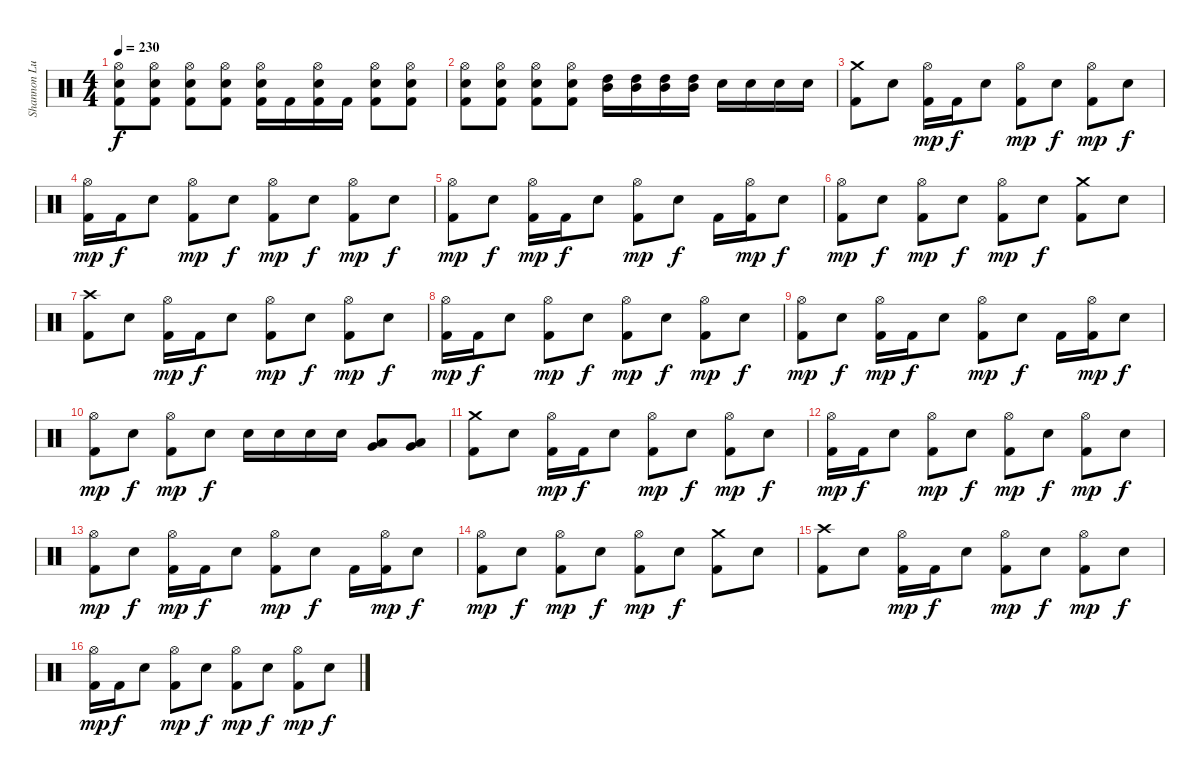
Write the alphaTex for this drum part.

\track ("Shannon Lucas" "Shannon Lu") {instrument percussion}
\staff {score}
\articulation defaults
\ts (4 4)
\tempo 230
\clef neutral
\ks c
("Hi-Hat (open)" "Electric Snare (hit)" "Kick (hit) 2").8{dy f} ("Hi-Hat (open)" "Electric Snare (hit)" "Kick (hit) 2").8 ("Hi-Hat (open)" "Electric Snare (hit)" "Kick (hit) 2").8 ("Hi-Hat (open)" "Electric Snare (hit)" "Kick (hit) 2").8 ("Hi-Hat (open)" "Electric Snare (hit)" "Kick (hit) 2").16 "Kick (hit) 2".16 ("Hi-Hat (open)" "Electric Snare (hit)" "Kick (hit) 2").16 "Kick (hit) 2".16 ("Hi-Hat (open)" "Electric Snare (hit)" "Kick (hit) 2").8 ("Hi-Hat (open)" "Electric Snare (hit)" "Kick (hit) 2").8 |
("Hi-Hat (open)" "Electric Snare (hit)" "Kick (hit) 2").8 ("Hi-Hat (open)" "Electric Snare (hit)" "Kick (hit) 2").8 ("Hi-Hat (open)" "Electric Snare (hit)" "Kick (hit) 2").8 ("Hi-Hat (open)" "Electric Snare (hit)" "Kick (hit) 2").8 ("High Tom (hit)" "Mid Tom (hit)").16 ("High Tom (hit)" "Mid Tom (hit)").16 ("High Tom (hit)" "Mid Tom (hit)").16 ("High Tom (hit)" "Mid Tom (hit)").16 "Electric Snare (hit)".16 "Electric Snare (hit)".16 "Electric Snare (hit)".16 "Electric Snare (hit)".16 |
("Crash medium (hit)" "Kick (hit) 2").8 "Electric Snare (hit)".8 ("Hi-Hat (open)" "Kick (hit) 2").16{dy mp} "Kick (hit) 2".16{dy f} "Electric Snare (hit)".8 ("Hi-Hat (open)" "Kick (hit) 2").8{dy mp} "Electric Snare (hit)".8{dy f} ("Hi-Hat (open)" "Kick (hit) 2").8{dy mp} "Electric Snare (hit)".8{dy f} |
("Hi-Hat (open)" "Kick (hit) 2").16{dy mp} "Kick (hit) 2".16{dy f} "Electric Snare (hit)".8 ("Hi-Hat (open)" "Kick (hit) 2").8{dy mp} "Electric Snare (hit)".8{dy f} ("Hi-Hat (open)" "Kick (hit) 2").8{dy mp} "Electric Snare (hit)".8{dy f} ("Hi-Hat (open)" "Kick (hit) 2").8{dy mp} "Electric Snare (hit)".8{dy f} |
("Hi-Hat (open)" "Kick (hit) 2").8{dy mp} "Electric Snare (hit)".8{dy f} ("Hi-Hat (open)" "Kick (hit) 2").16{dy mp} "Kick (hit) 2".16{dy f} "Electric Snare (hit)".8 ("Hi-Hat (open)" "Kick (hit) 2").8{dy mp} "Electric Snare (hit)".8{dy f} "Kick (hit) 2".16 ("Hi-Hat (open)" "Kick (hit) 2").16{dy mp} "Electric Snare (hit)".8{dy f} |
("Hi-Hat (open)" "Kick (hit) 2").8{dy mp} "Electric Snare (hit)".8{dy f} ("Hi-Hat (open)" "Kick (hit) 2").8{dy mp} "Electric Snare (hit)".8{dy f} ("Hi-Hat (open)" "Kick (hit) 2").8{dy mp} "Electric Snare (hit)".8{dy f} ("Crash medium (hit)" "Kick (hit) 2").8 "Electric Snare (hit)".8 |
("Crash high (hit)" "Kick (hit) 2").8 "Electric Snare (hit)".8 ("Hi-Hat (open)" "Kick (hit) 2").16{dy mp} "Kick (hit) 2".16{dy f} "Electric Snare (hit)".8 ("Hi-Hat (open)" "Kick (hit) 2").8{dy mp} "Electric Snare (hit)".8{dy f} ("Hi-Hat (open)" "Kick (hit) 2").8{dy mp} "Electric Snare (hit)".8{dy f} |
("Hi-Hat (open)" "Kick (hit) 2").16{dy mp} "Kick (hit) 2".16{dy f} "Electric Snare (hit)".8 ("Hi-Hat (open)" "Kick (hit) 2").8{dy mp} "Electric Snare (hit)".8{dy f} ("Hi-Hat (open)" "Kick (hit) 2").8{dy mp} "Electric Snare (hit)".8{dy f} ("Hi-Hat (open)" "Kick (hit) 2").8{dy mp} "Electric Snare (hit)".8{dy f} |
("Hi-Hat (open)" "Kick (hit) 2").8{dy mp} "Electric Snare (hit)".8{dy f} ("Hi-Hat (open)" "Kick (hit) 2").16{dy mp} "Kick (hit) 2".16{dy f} "Electric Snare (hit)".8 ("Hi-Hat (open)" "Kick (hit) 2").8{dy mp} "Electric Snare (hit)".8{dy f} "Kick (hit) 2".16 ("Hi-Hat (open)" "Kick (hit) 2").16{dy mp} "Electric Snare (hit)".8{dy f} |
("Hi-Hat (open)" "Kick (hit) 2").8{dy mp} "Electric Snare (hit)".8{dy f} ("Hi-Hat (open)" "Kick (hit) 2").8{dy mp} "Electric Snare (hit)".8{dy f} "Electric Snare (hit)".16 "Electric Snare (hit)".16 "Electric Snare (hit)".16 "Electric Snare (hit)".16 ("Very Low Tom (hit)" "Low Tom (hit)").8 ("Very Low Tom (hit)" "Low Tom (hit)").8 |
("Crash medium (hit)" "Kick (hit) 2").8 "Electric Snare (hit)".8 ("Hi-Hat (open)" "Kick (hit) 2").16{dy mp} "Kick (hit) 2".16{dy f} "Electric Snare (hit)".8 ("Hi-Hat (open)" "Kick (hit) 2").8{dy mp} "Electric Snare (hit)".8{dy f} ("Hi-Hat (open)" "Kick (hit) 2").8{dy mp} "Electric Snare (hit)".8{dy f} |
("Hi-Hat (open)" "Kick (hit) 2").16{dy mp} "Kick (hit) 2".16{dy f} "Electric Snare (hit)".8 ("Hi-Hat (open)" "Kick (hit) 2").8{dy mp} "Electric Snare (hit)".8{dy f} ("Hi-Hat (open)" "Kick (hit) 2").8{dy mp} "Electric Snare (hit)".8{dy f} ("Hi-Hat (open)" "Kick (hit) 2").8{dy mp} "Electric Snare (hit)".8{dy f} |
("Hi-Hat (open)" "Kick (hit) 2").8{dy mp} "Electric Snare (hit)".8{dy f} ("Hi-Hat (open)" "Kick (hit) 2").16{dy mp} "Kick (hit) 2".16{dy f} "Electric Snare (hit)".8 ("Hi-Hat (open)" "Kick (hit) 2").8{dy mp} "Electric Snare (hit)".8{dy f} "Kick (hit) 2".16 ("Hi-Hat (open)" "Kick (hit) 2").16{dy mp} "Electric Snare (hit)".8{dy f} |
("Hi-Hat (open)" "Kick (hit) 2").8{dy mp} "Electric Snare (hit)".8{dy f} ("Hi-Hat (open)" "Kick (hit) 2").8{dy mp} "Electric Snare (hit)".8{dy f} ("Hi-Hat (open)" "Kick (hit) 2").8{dy mp} "Electric Snare (hit)".8{dy f} ("Crash medium (hit)" "Kick (hit) 2").8 "Electric Snare (hit)".8 |
("Crash high (hit)" "Kick (hit) 2").8 "Electric Snare (hit)".8 ("Hi-Hat (open)" "Kick (hit) 2").16{dy mp} "Kick (hit) 2".16{dy f} "Electric Snare (hit)".8 ("Hi-Hat (open)" "Kick (hit) 2").8{dy mp} "Electric Snare (hit)".8{dy f} ("Hi-Hat (open)" "Kick (hit) 2").8{dy mp} "Electric Snare (hit)".8{dy f} |
("Hi-Hat (open)" "Kick (hit) 2").16{dy mp} "Kick (hit) 2".16{dy f} "Electric Snare (hit)".8 ("Hi-Hat (open)" "Kick (hit) 2").8{dy mp} "Electric Snare (hit)".8{dy f} ("Hi-Hat (open)" "Kick (hit) 2").8{dy mp} "Electric Snare (hit)".8{dy f} ("Hi-Hat (open)" "Kick (hit) 2").8{dy mp} "Electric Snare (hit)".8{dy f}
